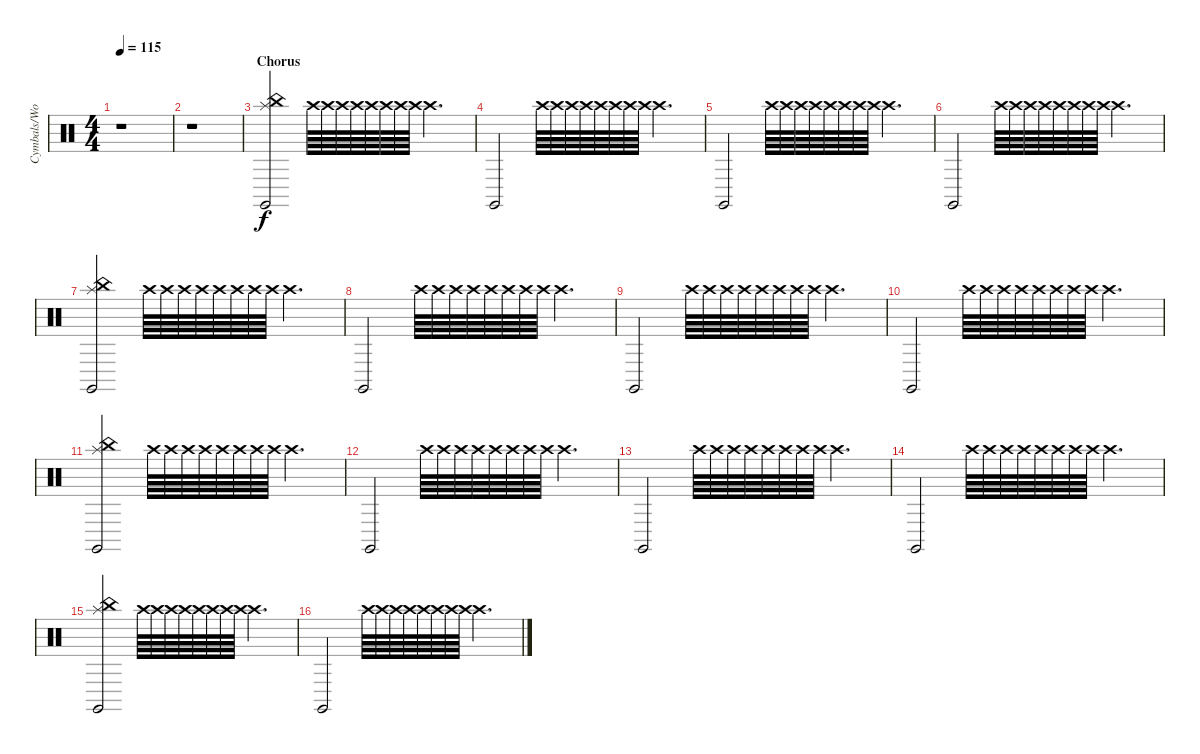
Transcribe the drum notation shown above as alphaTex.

\track ("Cymbals/Woodblock" "Cymbals/Wo") {instrument percussion}
\staff {score}
\articulation defaults
\ts (4 4)
\tempo 115
\clef neutral
\ks c
r.1{dy f} |
r.1 |
\section ("" "Chorus")
("Splash (hit)" "China (hit)" "Claves (hit)").2 "Crash high (hit)".64 "Crash high (hit)".64 "Crash high (hit)".64 "Crash high (hit)".64 "Crash high (hit)".64 "Crash high (hit)".64 "Crash high (hit)".64 "Crash high (hit)".64 "Crash high (hit)".4{d} |
"Claves (hit)".2 "Crash high (hit)".64 "Crash high (hit)".64 "Crash high (hit)".64 "Crash high (hit)".64 "Crash high (hit)".64 "Crash high (hit)".64 "Crash high (hit)".64 "Crash high (hit)".64 "Crash high (hit)".4{d} |
"Claves (hit)".2 "Crash high (hit)".64 "Crash high (hit)".64 "Crash high (hit)".64 "Crash high (hit)".64 "Crash high (hit)".64 "Crash high (hit)".64 "Crash high (hit)".64 "Crash high (hit)".64 "Crash high (hit)".4{d} |
"Claves (hit)".2 "Crash high (hit)".64 "Crash high (hit)".64 "Crash high (hit)".64 "Crash high (hit)".64 "Crash high (hit)".64 "Crash high (hit)".64 "Crash high (hit)".64 "Crash high (hit)".64 "Crash high (hit)".4{d} |
("Splash (hit)" "China (hit)" "Claves (hit)").2 "Crash high (hit)".64 "Crash high (hit)".64 "Crash high (hit)".64 "Crash high (hit)".64 "Crash high (hit)".64 "Crash high (hit)".64 "Crash high (hit)".64 "Crash high (hit)".64 "Crash high (hit)".4{d} |
"Claves (hit)".2 "Crash high (hit)".64 "Crash high (hit)".64 "Crash high (hit)".64 "Crash high (hit)".64 "Crash high (hit)".64 "Crash high (hit)".64 "Crash high (hit)".64 "Crash high (hit)".64 "Crash high (hit)".4{d} |
"Claves (hit)".2 "Crash high (hit)".64 "Crash high (hit)".64 "Crash high (hit)".64 "Crash high (hit)".64 "Crash high (hit)".64 "Crash high (hit)".64 "Crash high (hit)".64 "Crash high (hit)".64 "Crash high (hit)".4{d} |
"Claves (hit)".2 "Crash high (hit)".64 "Crash high (hit)".64 "Crash high (hit)".64 "Crash high (hit)".64 "Crash high (hit)".64 "Crash high (hit)".64 "Crash high (hit)".64 "Crash high (hit)".64 "Crash high (hit)".4{d} |
("Splash (hit)" "China (hit)" "Claves (hit)").2 "Crash high (hit)".64 "Crash high (hit)".64 "Crash high (hit)".64 "Crash high (hit)".64 "Crash high (hit)".64 "Crash high (hit)".64 "Crash high (hit)".64 "Crash high (hit)".64 "Crash high (hit)".4{d} |
"Claves (hit)".2 "Crash high (hit)".64 "Crash high (hit)".64 "Crash high (hit)".64 "Crash high (hit)".64 "Crash high (hit)".64 "Crash high (hit)".64 "Crash high (hit)".64 "Crash high (hit)".64 "Crash high (hit)".4{d} |
"Claves (hit)".2 "Crash high (hit)".64 "Crash high (hit)".64 "Crash high (hit)".64 "Crash high (hit)".64 "Crash high (hit)".64 "Crash high (hit)".64 "Crash high (hit)".64 "Crash high (hit)".64 "Crash high (hit)".4{d} |
"Claves (hit)".2 "Crash high (hit)".64 "Crash high (hit)".64 "Crash high (hit)".64 "Crash high (hit)".64 "Crash high (hit)".64 "Crash high (hit)".64 "Crash high (hit)".64 "Crash high (hit)".64 "Crash high (hit)".4{d} |
("Splash (hit)" "China (hit)" "Claves (hit)").2 "Crash high (hit)".64 "Crash high (hit)".64 "Crash high (hit)".64 "Crash high (hit)".64 "Crash high (hit)".64 "Crash high (hit)".64 "Crash high (hit)".64 "Crash high (hit)".64 "Crash high (hit)".4{d} |
"Claves (hit)".2 "Crash high (hit)".64 "Crash high (hit)".64 "Crash high (hit)".64 "Crash high (hit)".64 "Crash high (hit)".64 "Crash high (hit)".64 "Crash high (hit)".64 "Crash high (hit)".64 "Crash high (hit)".4{d}
